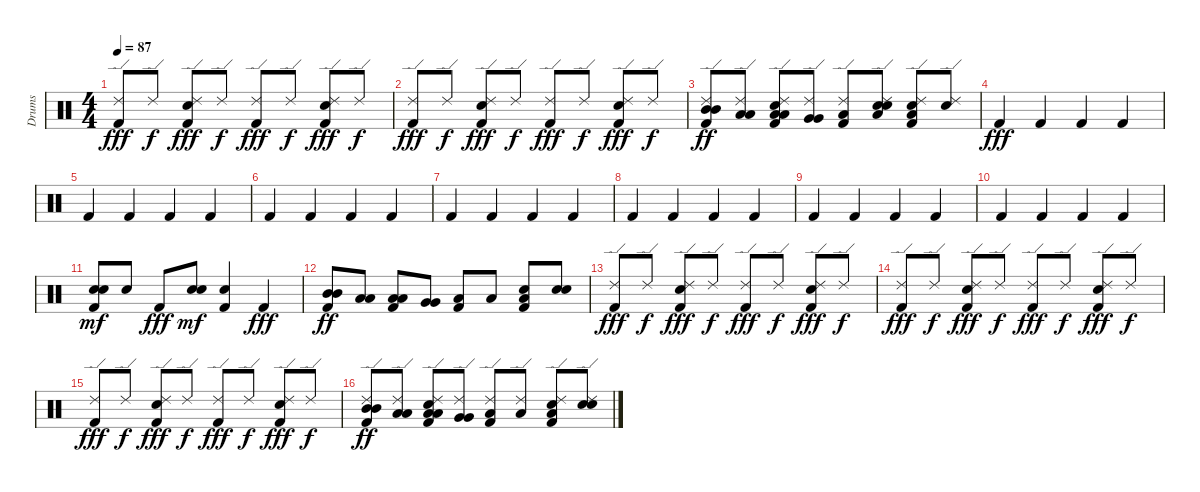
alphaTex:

\track ("Drums" "Drums") {instrument percussion}
\staff {score}
\articulation defaults
\ts (4 4)
\tempo 87
\clef neutral
\ks c
("Kick (hit) 2" "Ride (edge) 2").8{dy fff} "Ride (edge) 2".8{dy f} ("Electric Snare (hit)" "Kick (hit) 2" "Ride (edge) 2").8{dy fff} "Ride (edge) 2".8{dy f} ("Kick (hit) 2" "Ride (edge) 2").8{dy fff} "Ride (edge) 2".8{dy f} ("Electric Snare (hit)" "Kick (hit) 2" "Ride (edge) 2").8{dy fff} "Ride (edge) 2".8{dy f} |
("Kick (hit) 2" "Ride (edge) 2").8{dy fff} "Ride (edge) 2".8{dy f} ("Electric Snare (hit)" "Kick (hit) 2" "Ride (edge) 2").8{dy fff} "Ride (edge) 2".8{dy f} ("Kick (hit) 2" "Ride (edge) 2").8{dy fff} "Ride (edge) 2".8{dy f} ("Electric Snare (hit)" "Kick (hit) 2" "Ride (edge) 2").8{dy fff} "Ride (edge) 2".8{dy f} |
("Kick (hit) 2" "Ride (edge) 2" "Mid Tom (hit)" "Mid Tom (hit)").8{dy ff} ("Ride (edge) 2" "Low Tom (hit)" "Low Tom (hit)").8 ("Electric Snare (hit)" "Kick (hit) 2" "Ride (edge) 2" "Low Tom (hit)" "Low Tom (hit)").8 ("Ride (edge) 2" "Very Low Tom (hit)" "Very Low Tom (hit)").8 ("Kick (hit) 2" "Ride (edge) 2" "Low Floor Tom (hit)").8 ("Electric Snare (hit)" "Ride (edge) 2" "Low Floor Tom (hit)" "Electric Snare (hit)").8 ("Kick (hit) 2" "Ride (edge) 2" "Low Floor Tom (hit)" "Electric Snare (hit)").8 ("Electric Snare (hit)" "Ride (edge) 2").8 |
"Kick (hit) 2".4{dy fff} "Kick (hit) 2".4 "Kick (hit) 2".4 "Kick (hit) 2".4 |
"Kick (hit) 2".4 "Kick (hit) 2".4 "Kick (hit) 2".4 "Kick (hit) 2".4 |
"Kick (hit) 2".4 "Kick (hit) 2".4 "Kick (hit) 2".4 "Kick (hit) 2".4 |
"Kick (hit) 2".4 "Kick (hit) 2".4 "Kick (hit) 2".4 "Kick (hit) 2".4 |
"Kick (hit) 2".4 "Kick (hit) 2".4 "Kick (hit) 2".4 "Kick (hit) 2".4 |
"Kick (hit) 2".4 "Kick (hit) 2".4 "Kick (hit) 2".4 "Kick (hit) 2".4 |
"Kick (hit) 2".4 "Kick (hit) 2".4 "Kick (hit) 2".4 "Kick (hit) 2".4 |
("Kick (hit) 2" "Snare (hit) 2" "Snare (hit) 2").8{dy mf} "Snare (hit) 2".8 "Kick (hit) 2".8{dy fff} ("Snare (hit) 2" "Snare (hit) 2").8{dy mf} ("Kick (hit) 2" "Snare (hit) 2").4 "Kick (hit) 2".4{dy fff} |
("Kick (hit) 2" "Mid Tom (hit)" "Mid Tom (hit)").8{dy ff} ("Low Tom (hit)" "Low Tom (hit)").8 ("Kick (hit) 2" "Low Tom (hit)" "Low Tom (hit)").8 ("Very Low Tom (hit)" "Very Low Tom (hit)").8 ("Kick (hit) 2" "Low Floor Tom (hit)").8 "Low Floor Tom (hit)".8 ("Electric Snare (hit)" "Kick (hit) 2" "Low Floor Tom (hit)").8 ("Electric Snare (hit)" "Electric Snare (hit)").8 |
("Kick (hit) 2" "Ride (edge) 2").8{dy fff} "Ride (edge) 2".8{dy f} ("Electric Snare (hit)" "Kick (hit) 2" "Ride (edge) 2").8{dy fff} "Ride (edge) 2".8{dy f} ("Kick (hit) 2" "Ride (edge) 2").8{dy fff} "Ride (edge) 2".8{dy f} ("Electric Snare (hit)" "Kick (hit) 2" "Ride (edge) 2").8{dy fff} "Ride (edge) 2".8{dy f} |
("Kick (hit) 2" "Ride (edge) 2").8{dy fff} "Ride (edge) 2".8{dy f} ("Electric Snare (hit)" "Kick (hit) 2" "Ride (edge) 2").8{dy fff} "Ride (edge) 2".8{dy f} ("Kick (hit) 2" "Ride (edge) 2").8{dy fff} "Ride (edge) 2".8{dy f} ("Electric Snare (hit)" "Kick (hit) 2" "Ride (edge) 2").8{dy fff} "Ride (edge) 2".8{dy f} |
("Kick (hit) 2" "Ride (edge) 2").8{dy fff} "Ride (edge) 2".8{dy f} ("Electric Snare (hit)" "Kick (hit) 2" "Ride (edge) 2").8{dy fff} "Ride (edge) 2".8{dy f} ("Kick (hit) 2" "Ride (edge) 2").8{dy fff} "Ride (edge) 2".8{dy f} ("Electric Snare (hit)" "Kick (hit) 2" "Ride (edge) 2").8{dy fff} "Ride (edge) 2".8{dy f} |
("Kick (hit) 2" "Ride (edge) 2" "Mid Tom (hit)" "Mid Tom (hit)").8{dy ff} ("Ride (edge) 2" "Low Tom (hit)" "Low Tom (hit)").8 ("Electric Snare (hit)" "Kick (hit) 2" "Ride (edge) 2" "Low Tom (hit)" "Low Tom (hit)").8 ("Ride (edge) 2" "Very Low Tom (hit)" "Very Low Tom (hit)").8 ("Kick (hit) 2" "Ride (edge) 2" "Low Floor Tom (hit)").8 ("Ride (edge) 2" "Low Floor Tom (hit)").8 ("Electric Snare (hit)" "Kick (hit) 2" "Ride (edge) 2" "Low Floor Tom (hit)").8 ("Electric Snare (hit)" "Ride (edge) 2" "Electric Snare (hit)").8
